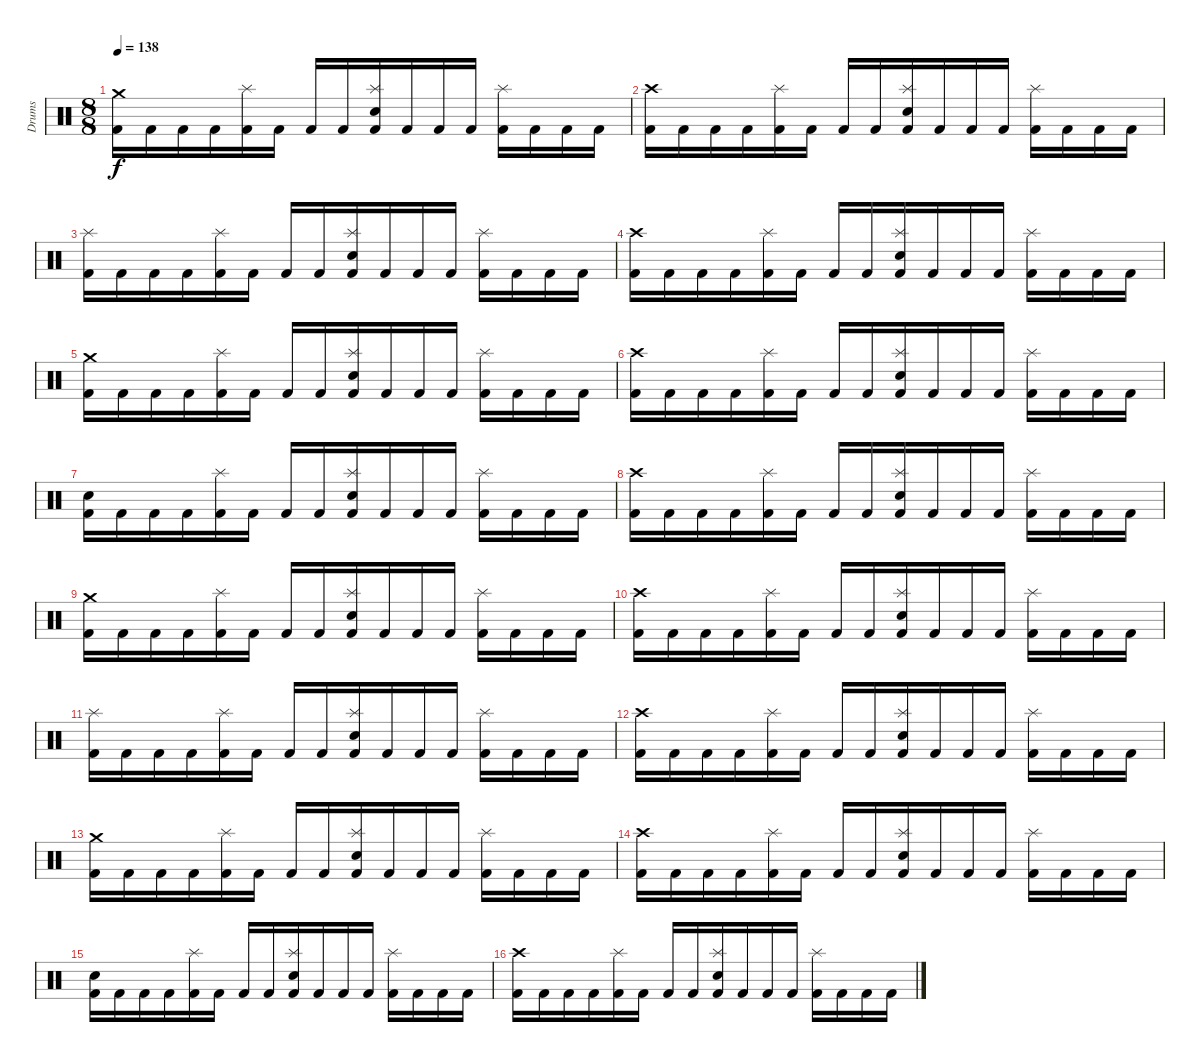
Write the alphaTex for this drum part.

\track ("Drums" "Drums") {instrument percussion}
\staff {score}
\articulation defaults
\ts (8 8)
\tempo 138
\clef neutral
\ks c
("Crash medium (hit)" "Kick (hit) 2").16{dy f} "Kick (hit) 2".16 "Kick (hit) 2".16 "Kick (hit) 2".16 ("Splash (hit)" "Kick (hit) 2").16 "Kick (hit) 2".16 "Kick (hit) 2".16 "Kick (hit) 2".16 ("Splash (hit)" "Snare (hit) 2" "Kick (hit) 2").16 "Kick (hit) 2".16 "Kick (hit) 2".16 "Kick (hit) 2".16 ("Splash (hit)" "Kick (hit) 2").16 "Kick (hit) 2".16 "Kick (hit) 2".16 "Kick (hit) 2".16 |
("Crash high (hit)" "Kick (hit) 2").16 "Kick (hit) 2".16 "Kick (hit) 2".16 "Kick (hit) 2".16 ("Splash (hit)" "Kick (hit) 2").16 "Kick (hit) 2".16 "Kick (hit) 2".16 "Kick (hit) 2".16 ("Splash (hit)" "Snare (hit) 2" "Kick (hit) 2").16 "Kick (hit) 2".16 "Kick (hit) 2".16 "Kick (hit) 2".16 ("Splash (hit)" "Kick (hit) 2").16 "Kick (hit) 2".16 "Kick (hit) 2".16 "Kick (hit) 2".16 |
("Splash (hit)" "Kick (hit) 2").16 "Kick (hit) 2".16 "Kick (hit) 2".16 "Kick (hit) 2".16 ("Splash (hit)" "Kick (hit) 2").16 "Kick (hit) 2".16 "Kick (hit) 2".16 "Kick (hit) 2".16 ("Splash (hit)" "Snare (hit) 2" "Kick (hit) 2").16 "Kick (hit) 2".16 "Kick (hit) 2".16 "Kick (hit) 2".16 ("Splash (hit)" "Kick (hit) 2").16 "Kick (hit) 2".16 "Kick (hit) 2".16 "Kick (hit) 2".16 |
("Crash high (hit)" "Kick (hit) 2").16 "Kick (hit) 2".16 "Kick (hit) 2".16 "Kick (hit) 2".16 ("Splash (hit)" "Kick (hit) 2").16 "Kick (hit) 2".16 "Kick (hit) 2".16 "Kick (hit) 2".16 ("Splash (hit)" "Snare (hit) 2" "Kick (hit) 2").16 "Kick (hit) 2".16 "Kick (hit) 2".16 "Kick (hit) 2".16 ("Splash (hit)" "Kick (hit) 2").16 "Kick (hit) 2".16 "Kick (hit) 2".16 "Kick (hit) 2".16 |
("Crash medium (hit)" "Kick (hit) 2").16 "Kick (hit) 2".16 "Kick (hit) 2".16 "Kick (hit) 2".16 ("Splash (hit)" "Kick (hit) 2").16 "Kick (hit) 2".16 "Kick (hit) 2".16 "Kick (hit) 2".16 ("Splash (hit)" "Snare (hit) 2" "Kick (hit) 2").16 "Kick (hit) 2".16 "Kick (hit) 2".16 "Kick (hit) 2".16 ("Splash (hit)" "Kick (hit) 2").16 "Kick (hit) 2".16 "Kick (hit) 2".16 "Kick (hit) 2".16 |
("Crash high (hit)" "Kick (hit) 2").16 "Kick (hit) 2".16 "Kick (hit) 2".16 "Kick (hit) 2".16 ("Splash (hit)" "Kick (hit) 2").16 "Kick (hit) 2".16 "Kick (hit) 2".16 "Kick (hit) 2".16 ("Splash (hit)" "Snare (hit) 2" "Kick (hit) 2").16 "Kick (hit) 2".16 "Kick (hit) 2".16 "Kick (hit) 2".16 ("Splash (hit)" "Kick (hit) 2").16 "Kick (hit) 2".16 "Kick (hit) 2".16 "Kick (hit) 2".16 |
("Snare (hit) 2" "Kick (hit) 2").16 "Kick (hit) 2".16 "Kick (hit) 2".16 "Kick (hit) 2".16 ("Splash (hit)" "Kick (hit) 2").16 "Kick (hit) 2".16 "Kick (hit) 2".16 "Kick (hit) 2".16 ("Splash (hit)" "Snare (hit) 2" "Kick (hit) 2").16 "Kick (hit) 2".16 "Kick (hit) 2".16 "Kick (hit) 2".16 ("Splash (hit)" "Kick (hit) 2").16 "Kick (hit) 2".16 "Kick (hit) 2".16 "Kick (hit) 2".16 |
("Crash high (hit)" "Kick (hit) 2").16 "Kick (hit) 2".16 "Kick (hit) 2".16 "Kick (hit) 2".16 ("Splash (hit)" "Kick (hit) 2").16 "Kick (hit) 2".16 "Kick (hit) 2".16 "Kick (hit) 2".16 ("Splash (hit)" "Snare (hit) 2" "Kick (hit) 2").16 "Kick (hit) 2".16 "Kick (hit) 2".16 "Kick (hit) 2".16 ("Splash (hit)" "Kick (hit) 2").16 "Kick (hit) 2".16 "Kick (hit) 2".16 "Kick (hit) 2".16 |
("Crash medium (hit)" "Kick (hit) 2").16 "Kick (hit) 2".16 "Kick (hit) 2".16 "Kick (hit) 2".16 ("Splash (hit)" "Kick (hit) 2").16 "Kick (hit) 2".16 "Kick (hit) 2".16 "Kick (hit) 2".16 ("Splash (hit)" "Snare (hit) 2" "Kick (hit) 2").16 "Kick (hit) 2".16 "Kick (hit) 2".16 "Kick (hit) 2".16 ("Splash (hit)" "Kick (hit) 2").16 "Kick (hit) 2".16 "Kick (hit) 2".16 "Kick (hit) 2".16 |
("Crash high (hit)" "Kick (hit) 2").16 "Kick (hit) 2".16 "Kick (hit) 2".16 "Kick (hit) 2".16 ("Splash (hit)" "Kick (hit) 2").16 "Kick (hit) 2".16 "Kick (hit) 2".16 "Kick (hit) 2".16 ("Splash (hit)" "Snare (hit) 2" "Kick (hit) 2").16 "Kick (hit) 2".16 "Kick (hit) 2".16 "Kick (hit) 2".16 ("Splash (hit)" "Kick (hit) 2").16 "Kick (hit) 2".16 "Kick (hit) 2".16 "Kick (hit) 2".16 |
("Splash (hit)" "Kick (hit) 2").16 "Kick (hit) 2".16 "Kick (hit) 2".16 "Kick (hit) 2".16 ("Splash (hit)" "Kick (hit) 2").16 "Kick (hit) 2".16 "Kick (hit) 2".16 "Kick (hit) 2".16 ("Splash (hit)" "Snare (hit) 2" "Kick (hit) 2").16 "Kick (hit) 2".16 "Kick (hit) 2".16 "Kick (hit) 2".16 ("Splash (hit)" "Kick (hit) 2").16 "Kick (hit) 2".16 "Kick (hit) 2".16 "Kick (hit) 2".16 |
("Crash high (hit)" "Kick (hit) 2").16 "Kick (hit) 2".16 "Kick (hit) 2".16 "Kick (hit) 2".16 ("Splash (hit)" "Kick (hit) 2").16 "Kick (hit) 2".16 "Kick (hit) 2".16 "Kick (hit) 2".16 ("Splash (hit)" "Snare (hit) 2" "Kick (hit) 2").16 "Kick (hit) 2".16 "Kick (hit) 2".16 "Kick (hit) 2".16 ("Splash (hit)" "Kick (hit) 2").16 "Kick (hit) 2".16 "Kick (hit) 2".16 "Kick (hit) 2".16 |
("Crash medium (hit)" "Kick (hit) 2").16 "Kick (hit) 2".16 "Kick (hit) 2".16 "Kick (hit) 2".16 ("Splash (hit)" "Kick (hit) 2").16 "Kick (hit) 2".16 "Kick (hit) 2".16 "Kick (hit) 2".16 ("Splash (hit)" "Snare (hit) 2" "Kick (hit) 2").16 "Kick (hit) 2".16 "Kick (hit) 2".16 "Kick (hit) 2".16 ("Splash (hit)" "Kick (hit) 2").16 "Kick (hit) 2".16 "Kick (hit) 2".16 "Kick (hit) 2".16 |
("Crash high (hit)" "Kick (hit) 2").16 "Kick (hit) 2".16 "Kick (hit) 2".16 "Kick (hit) 2".16 ("Splash (hit)" "Kick (hit) 2").16 "Kick (hit) 2".16 "Kick (hit) 2".16 "Kick (hit) 2".16 ("Splash (hit)" "Snare (hit) 2" "Kick (hit) 2").16 "Kick (hit) 2".16 "Kick (hit) 2".16 "Kick (hit) 2".16 ("Splash (hit)" "Kick (hit) 2").16 "Kick (hit) 2".16 "Kick (hit) 2".16 "Kick (hit) 2".16 |
("Snare (hit) 2" "Kick (hit) 2").16 "Kick (hit) 2".16 "Kick (hit) 2".16 "Kick (hit) 2".16 ("Splash (hit)" "Kick (hit) 2").16 "Kick (hit) 2".16 "Kick (hit) 2".16 "Kick (hit) 2".16 ("Splash (hit)" "Snare (hit) 2" "Kick (hit) 2").16 "Kick (hit) 2".16 "Kick (hit) 2".16 "Kick (hit) 2".16 ("Splash (hit)" "Kick (hit) 2").16 "Kick (hit) 2".16 "Kick (hit) 2".16 "Kick (hit) 2".16 |
("Crash high (hit)" "Kick (hit) 2").16{volume 12} "Kick (hit) 2".16 "Kick (hit) 2".16 "Kick (hit) 2".16 ("Splash (hit)" "Kick (hit) 2").16 "Kick (hit) 2".16 "Kick (hit) 2".16 "Kick (hit) 2".16 ("Splash (hit)" "Snare (hit) 2" "Kick (hit) 2").16 "Kick (hit) 2".16 "Kick (hit) 2".16 "Kick (hit) 2".16 ("Splash (hit)" "Kick (hit) 2").16 "Kick (hit) 2".16 "Kick (hit) 2".16 "Kick (hit) 2".16
